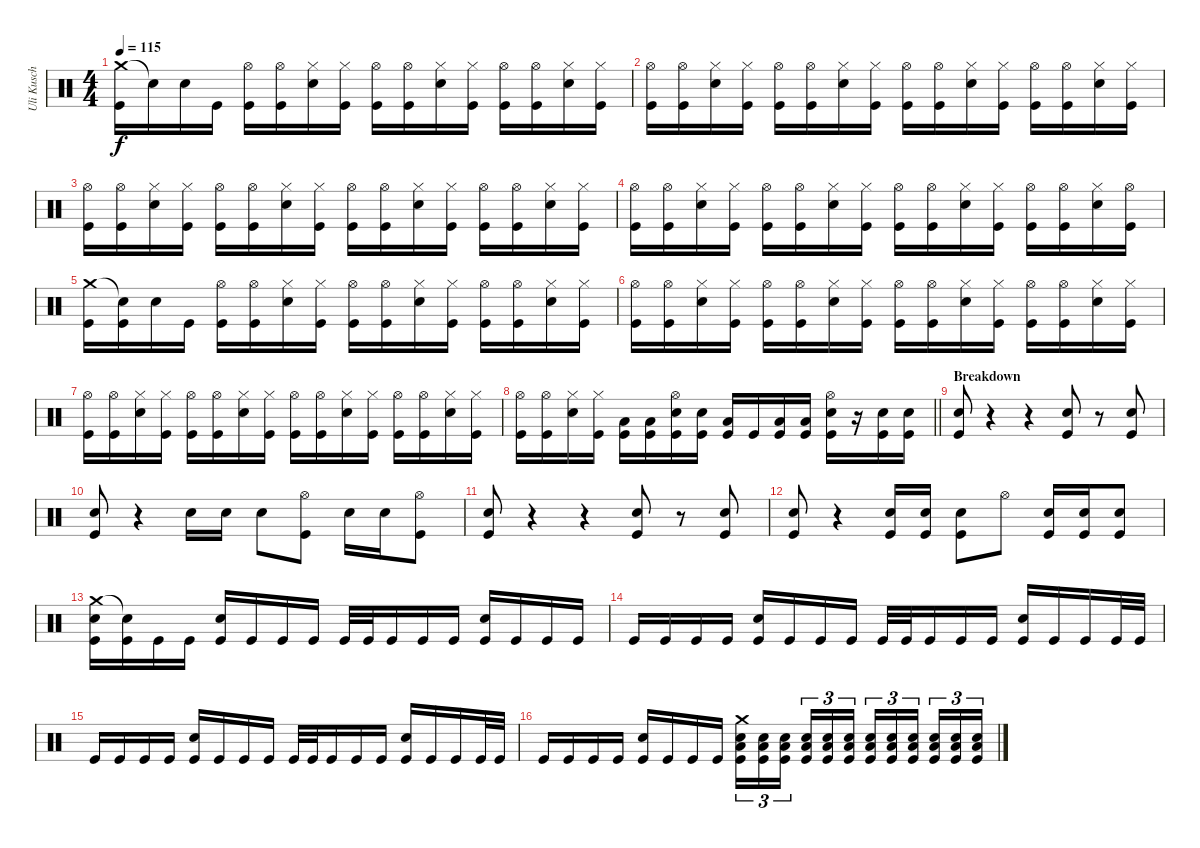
\track ("Uli Kusch (Drums)" "Uli Kusch ") {instrument percussion}
\staff {score}
\articulation defaults
\ts (4 4)
\tempo 115
\clef neutral
\ks c
("Crash medium (hit)" "Kick (hit)").16{dy f} "Snare (hit)"{t}.16 "Snare (hit) 2".16 "Kick (hit)".16 ("Hi-Hat (open)" "Kick (hit)").16 ("Hi-Hat (open)" "Kick (hit)").16 ("Hi-Hat (closed)" "Snare (hit) 2").16 ("Hi-Hat (closed)" "Kick (hit)").16 ("Hi-Hat (open)" "Kick (hit)").16 ("Hi-Hat (open)" "Kick (hit)").16 ("Hi-Hat (closed)" "Snare (hit) 2").16 ("Hi-Hat (closed)" "Kick (hit)").16 ("Hi-Hat (open)" "Kick (hit)").16 ("Hi-Hat (open)" "Kick (hit)").16 ("Hi-Hat (closed)" "Snare (hit) 2").16 ("Hi-Hat (closed)" "Kick (hit)").16 |
("Hi-Hat (open)" "Kick (hit)").16 ("Hi-Hat (open)" "Kick (hit)").16 ("Hi-Hat (closed)" "Snare (hit) 2").16 ("Hi-Hat (closed)" "Kick (hit)").16 ("Hi-Hat (open)" "Kick (hit)").16 ("Hi-Hat (open)" "Kick (hit)").16 ("Hi-Hat (closed)" "Snare (hit) 2").16 ("Hi-Hat (closed)" "Kick (hit)").16 ("Hi-Hat (open)" "Kick (hit)").16 ("Hi-Hat (open)" "Kick (hit)").16 ("Hi-Hat (closed)" "Snare (hit) 2").16 ("Hi-Hat (closed)" "Kick (hit)").16 ("Hi-Hat (open)" "Kick (hit)").16 ("Hi-Hat (open)" "Kick (hit)").16 ("Hi-Hat (closed)" "Snare (hit) 2").16 ("Hi-Hat (closed)" "Kick (hit)").16 |
("Hi-Hat (open)" "Kick (hit)").16 ("Hi-Hat (open)" "Kick (hit)").16 ("Hi-Hat (closed)" "Snare (hit) 2").16 ("Hi-Hat (closed)" "Kick (hit)").16 ("Hi-Hat (open)" "Kick (hit)").16 ("Hi-Hat (open)" "Kick (hit)").16 ("Hi-Hat (closed)" "Snare (hit) 2").16 ("Hi-Hat (closed)" "Kick (hit)").16 ("Hi-Hat (open)" "Kick (hit)").16 ("Hi-Hat (open)" "Kick (hit)").16 ("Hi-Hat (closed)" "Snare (hit) 2").16 ("Hi-Hat (closed)" "Kick (hit)").16 ("Hi-Hat (open)" "Kick (hit)").16 ("Hi-Hat (open)" "Kick (hit)").16 ("Hi-Hat (closed)" "Snare (hit) 2").16 ("Hi-Hat (closed)" "Kick (hit)").16 |
("Hi-Hat (open)" "Kick (hit)").16 ("Hi-Hat (open)" "Kick (hit)").16 ("Hi-Hat (closed)" "Snare (hit) 2").16 ("Hi-Hat (closed)" "Kick (hit)").16 ("Hi-Hat (open)" "Kick (hit)").16 ("Hi-Hat (open)" "Kick (hit)").16 ("Hi-Hat (closed)" "Snare (hit) 2").16 ("Hi-Hat (closed)" "Kick (hit)").16 ("Hi-Hat (open)" "Kick (hit)").16 ("Hi-Hat (open)" "Kick (hit)").16 ("Hi-Hat (closed)" "Snare (hit) 2").16 ("Hi-Hat (closed)" "Kick (hit)").16 ("Hi-Hat (open)" "Kick (hit)").16 ("Hi-Hat (open)" "Kick (hit)").16 ("Hi-Hat (closed)" "Snare (hit) 2").16 ("Hi-Hat (open)" "Kick (hit)").16 |
("Crash medium (hit)" "Kick (hit)").16 ("Snare (hit)"{t} "Kick (hit)").16 "Snare (hit) 2".16 "Kick (hit)".16 ("Hi-Hat (open)" "Kick (hit)").16 ("Hi-Hat (open)" "Kick (hit)").16 ("Hi-Hat (closed)" "Snare (hit) 2").16 ("Hi-Hat (closed)" "Kick (hit)").16 ("Hi-Hat (open)" "Kick (hit)").16 ("Hi-Hat (open)" "Kick (hit)").16 ("Hi-Hat (closed)" "Snare (hit) 2").16 ("Hi-Hat (closed)" "Kick (hit)").16 ("Hi-Hat (open)" "Kick (hit)").16 ("Hi-Hat (open)" "Kick (hit)").16 ("Hi-Hat (closed)" "Snare (hit) 2").16 ("Hi-Hat (closed)" "Kick (hit)").16 |
("Hi-Hat (open)" "Kick (hit)").16 ("Hi-Hat (open)" "Kick (hit)").16 ("Hi-Hat (closed)" "Snare (hit) 2").16 ("Hi-Hat (closed)" "Kick (hit)").16 ("Hi-Hat (open)" "Kick (hit)").16 ("Hi-Hat (open)" "Kick (hit)").16 ("Hi-Hat (closed)" "Snare (hit) 2").16 ("Hi-Hat (closed)" "Kick (hit)").16 ("Hi-Hat (open)" "Kick (hit)").16 ("Hi-Hat (open)" "Kick (hit)").16 ("Hi-Hat (closed)" "Snare (hit) 2").16 ("Hi-Hat (closed)" "Kick (hit)").16 ("Hi-Hat (open)" "Kick (hit)").16 ("Hi-Hat (open)" "Kick (hit)").16 ("Hi-Hat (closed)" "Snare (hit) 2").16 ("Hi-Hat (closed)" "Kick (hit)").16 |
("Hi-Hat (open)" "Kick (hit)").16 ("Hi-Hat (open)" "Kick (hit)").16 ("Hi-Hat (closed)" "Snare (hit) 2").16 ("Hi-Hat (closed)" "Kick (hit)").16 ("Hi-Hat (open)" "Kick (hit)").16 ("Hi-Hat (open)" "Kick (hit)").16 ("Hi-Hat (closed)" "Snare (hit) 2").16 ("Hi-Hat (closed)" "Kick (hit)").16 ("Hi-Hat (open)" "Kick (hit)").16 ("Hi-Hat (open)" "Kick (hit)").16 ("Hi-Hat (closed)" "Snare (hit) 2").16 ("Hi-Hat (closed)" "Kick (hit)").16 ("Hi-Hat (open)" "Kick (hit)").16 ("Hi-Hat (open)" "Kick (hit)").16 ("Hi-Hat (closed)" "Snare (hit) 2").16 ("Hi-Hat (closed)" "Kick (hit)").16 |
\barLineRight lightlight
("Hi-Hat (open)" "Kick (hit)").16 ("Hi-Hat (open)" "Kick (hit)").16 ("Hi-Hat (closed)" "Snare (hit) 2").16 ("Hi-Hat (closed)" "Kick (hit)").16 ("Low Tom (hit)" "Kick (hit)").16 ("Low Tom (hit)" "Kick (hit)").16 ("Hi-Hat (open)" "Snare (hit) 2" "Kick (hit)").16 ("Snare (hit) 2" "Kick (hit)").16 ("Low Tom (hit)" "Kick (hit)").16 "Kick (hit)".16 ("Low Tom (hit)" "Kick (hit)").16 ("Low Tom (hit)" "Kick (hit)").16 ("Hi-Hat (open)" "Snare (hit) 2" "Kick (hit)").16 r.16 ("Snare (hit) 2" "Kick (hit)").16 ("Snare (hit) 2" "Kick (hit)").16 |
\section ("" "Breakdown")
("Snare (hit) 2" "Kick (hit)").8 r.4 r.4 ("Snare (hit) 2" "Kick (hit)").8 r.8 ("Snare (hit) 2" "Kick (hit)").8 |
("Snare (hit) 2" "Kick (hit)").8 r.4 "Snare (hit) 2".16 "Snare (hit) 2".16 "Snare (hit) 2".8 ("Hi-Hat (open)" "Kick (hit)").8 "Snare (hit) 2".16 "Snare (hit) 2".16 ("Hi-Hat (open)" "Kick (hit)").8 |
("Snare (hit) 2" "Kick (hit)").8 r.4 r.4 ("Snare (hit) 2" "Kick (hit)").8 r.8 ("Snare (hit) 2" "Kick (hit)").8 |
("Snare (hit) 2" "Kick (hit)").8 r.4 ("Snare (hit) 2" "Kick (hit)").16 ("Snare (hit) 2" "Kick (hit)").16 ("Snare (hit) 2" "Kick (hit)").8 "Hi-Hat (open)".8 ("Snare (hit) 2" "Kick (hit)").16 ("Snare (hit) 2" "Kick (hit)").16 ("Snare (hit) 2" "Kick (hit)").8 |
("Crash medium (hit)" "Snare (hit) 2" "Kick (hit)").16 ("Snare (hit)"{t} "Kick (hit)").16 "Kick (hit)".16 "Kick (hit)".16 ("Snare (hit) 2" "Kick (hit)").16 "Kick (hit)".16 "Kick (hit)".16 "Kick (hit)".16 "Kick (hit)".32 "Kick (hit)".32 "Kick (hit)".16 "Kick (hit)".16 "Kick (hit)".16 ("Snare (hit) 2" "Kick (hit)").16 "Kick (hit)".16 "Kick (hit)".16 "Kick (hit)".16 |
"Kick (hit)".16 "Kick (hit)".16 "Kick (hit)".16 "Kick (hit)".16 ("Snare (hit) 2" "Kick (hit)").16 "Kick (hit)".16 "Kick (hit)".16 "Kick (hit)".16 "Kick (hit)".32 "Kick (hit)".32 "Kick (hit)".16 "Kick (hit)".16 "Kick (hit)".16 ("Snare (hit) 2" "Kick (hit)").16 "Kick (hit)".16 "Kick (hit)".16 "Kick (hit)".32 "Kick (hit)".32 |
"Kick (hit)".16 "Kick (hit)".16 "Kick (hit)".16 "Kick (hit)".16 ("Snare (hit) 2" "Kick (hit)").16 "Kick (hit)".16 "Kick (hit)".16 "Kick (hit)".16 "Kick (hit)".32 "Kick (hit)".32 "Kick (hit)".16 "Kick (hit)".16 "Kick (hit)".16 ("Snare (hit) 2" "Kick (hit)").16 "Kick (hit)".16 "Kick (hit)".16 "Kick (hit)".32 "Kick (hit)".32 |
"Kick (hit)".16 "Kick (hit)".16 "Kick (hit)".16 "Kick (hit)".16 ("Snare (hit) 2" "Kick (hit)").16 "Kick (hit)".16 "Kick (hit)".16 "Kick (hit)".16 ("Crash medium (hit)" "Low Tom (hit)" "Snare (hit) 2" "Kick (hit)").16{tu (3 2)} ("Low Tom (hit)" "Snare (hit) 2" "Kick (hit)").16{tu (3 2)} ("Low Tom (hit)" "Snare (hit) 2" "Kick (hit)").16{tu (3 2) beam splitsecondary} ("Low Tom (hit)" "Snare (hit) 2" "Kick (hit)").16{tu (3 2)} ("Low Tom (hit)" "Snare (hit) 2" "Kick (hit)").16{tu (3 2)} ("Low Tom (hit)" "Snare (hit) 2" "Kick (hit)").16{tu (3 2)} ("Low Tom (hit)" "Snare (hit) 2" "Kick (hit)").16{tu (3 2)} ("Low Tom (hit)" "Snare (hit) 2" "Kick (hit)").16{tu (3 2)} ("Low Tom (hit)" "Snare (hit) 2" "Kick (hit)").16{tu (3 2) beam splitsecondary} ("Low Tom (hit)" "Snare (hit) 2" "Kick (hit)").16{tu (3 2)} ("Low Tom (hit)" "Snare (hit) 2" "Kick (hit)").16{tu (3 2)} ("Low Tom (hit)" "Snare (hit) 2" "Kick (hit)").16{tu (3 2)}
